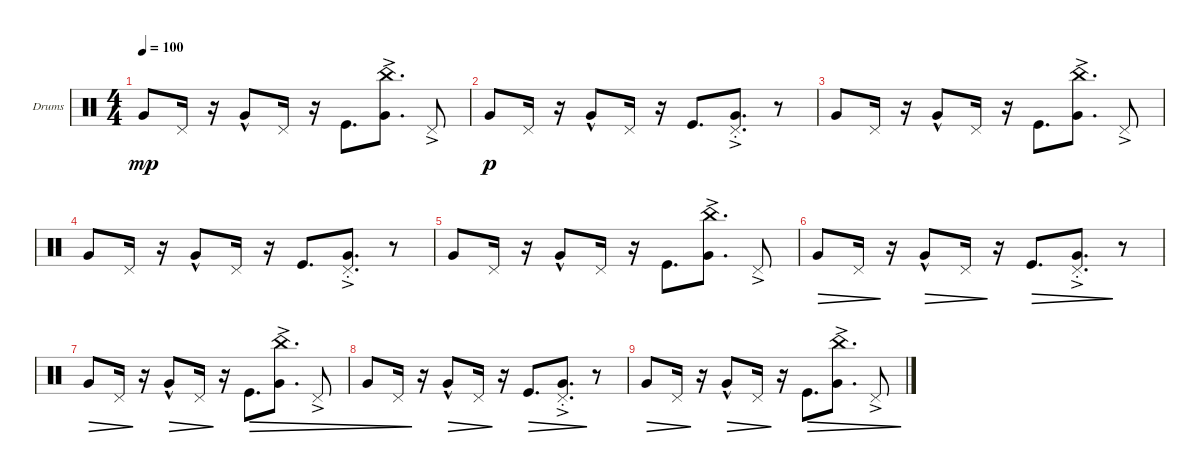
\defaultSystemsLayout 4
\bracketExtendMode groupsimilarinstruments
\firstSystemTrackNameOrientation horizontal
\otherSystemsTrackNameOrientation horizontal
\track ("Drumkit" "Drums") {instrument percussion}
\staff {score}
\articulation defaults
\ts (4 4)
\tempo 100
\clef neutral
\ks c "Very Low Tom (hit)".8{dy mp} "Pedal Hi-Hat (hit)".16
r.16 "Very Low Tom (hit)"{hac}.8 "Pedal Hi-Hat (hit)".16 r.16 "Kick (hit)".8{d} ("China (hit)"{ac} "Very Low Tom (hit)"{ac}).8{d} "Pedal Hi-Hat (hit)"{ac}.8 |
"Very Low Tom (hit)".8{dy p} "Pedal Hi-Hat (hit)".16 r.16 "Very Low Tom (hit)"{hac}.8 "Pedal Hi-Hat (hit)".16 r.16 "Kick (hit)".8{d} ("Very Low Tom (hit)"{ac st} "Pedal Hi-Hat (hit)"{ac st}).8{d} r.8 |
"Very Low Tom (hit)".8 "Pedal Hi-Hat (hit)".16 r.16 "Very Low Tom (hit)"{hac}.8 "Pedal Hi-Hat (hit)".16 r.16 "Kick (hit)".8{d} ("China (hit)"{ac} "Very Low Tom (hit)"{ac}).8{d} "Pedal Hi-Hat (hit)"{ac}.8 |
"Very Low Tom (hit)".8 "Pedal Hi-Hat (hit)".16 r.16 "Very Low Tom (hit)"{hac}.8 "Pedal Hi-Hat (hit)".16 r.16 "Kick (hit)".8{d} ("Very Low Tom (hit)"{ac st} "Pedal Hi-Hat (hit)"{ac st}).8{d} r.8 |
"Very Low Tom (hit)".8 "Pedal Hi-Hat (hit)".16 r.16 "Very Low Tom (hit)"{hac}.8 "Pedal Hi-Hat (hit)".16 r.16 "Kick (hit)".8{d} ("China (hit)"{ac} "Very Low Tom (hit)"{ac}).8{d} "Pedal Hi-Hat (hit)"{ac}.8 |
"Very Low Tom (hit)".8{dec} "Pedal Hi-Hat (hit)".16{dec} r.16 "Very Low Tom (hit)"{hac}.8{dec} "Pedal Hi-Hat (hit)".16{dec} r.16 "Kick (hit)".8{d dec} ("Very Low Tom (hit)"{ac st} "Pedal Hi-Hat (hit)"{ac st}).8{d dec} r.8 |
"Very Low Tom (hit)".8{dec} "Pedal Hi-Hat (hit)".16{dec} r.16 "Very Low Tom (hit)"{hac}.8{dec} "Pedal Hi-Hat (hit)".16{dec} r.16 "Kick (hit)".8{d dec} ("China (hit)"{ac} "Very Low Tom (hit)"{ac}).8{d dec} "Pedal Hi-Hat (hit)"{ac}.8{dec} |
"Very Low Tom (hit)".8{dec} "Pedal Hi-Hat (hit)".16{dec} r.16 "Very Low Tom (hit)"{hac}.8{dec} "Pedal Hi-Hat (hit)".16{dec} r.16 "Kick (hit)".8{d dec} ("Very Low Tom (hit)"{ac st} "Pedal Hi-Hat (hit)"{ac st}).8{d dec} r.8 |
"Very Low Tom (hit)".8{dec} "Pedal Hi-Hat (hit)".16{dec} r.16 "Very Low Tom (hit)"{hac}.8{dec} "Pedal Hi-Hat (hit)".16{dec} r.16 "Kick (hit)".8{d dec} ("China (hit)"{ac} "Very Low Tom (hit)"{ac}).8{d dec} "Pedal Hi-Hat (hit)"{ac}.8{dec}
